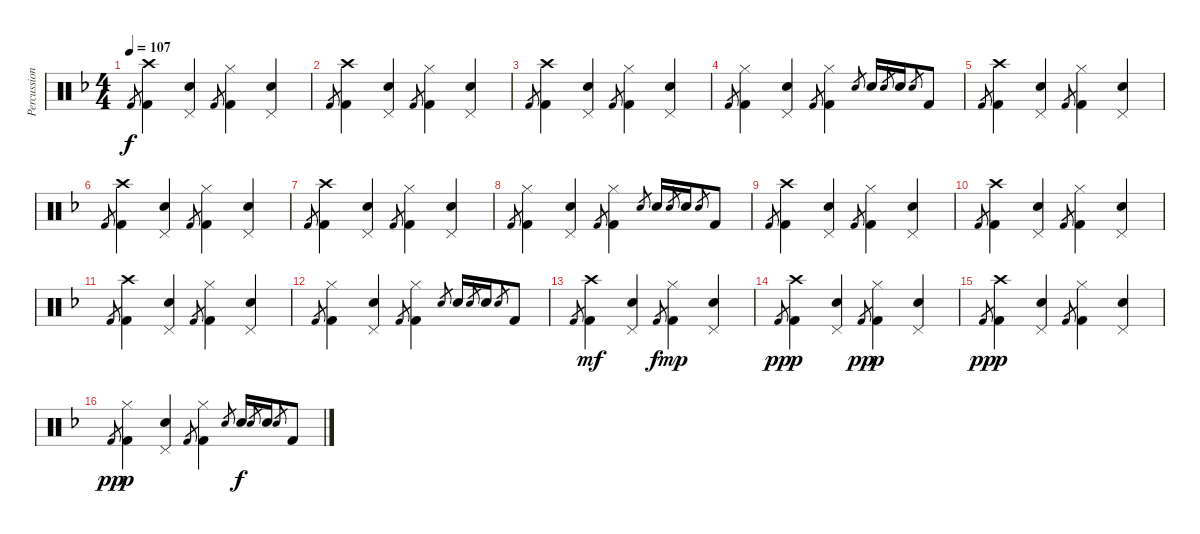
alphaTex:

\track ("Percussion" "Percussion") {instrument percussion}
\staff {score}
\articulation defaults
\ts (4 4)
\tempo 107
\clef neutral
\ks f "Kick (hit) 2".8{gr dy f}
("Kick (hit) 2" "Crash high (hit)").4 ("Snare (hit) 2" "Pedal Hi-Hat (hit)").4 "Kick (hit) 2".8{gr} ("Kick (hit) 2" "Hi-Hat (closed)").4 ("Snare (hit) 2" "Pedal Hi-Hat (hit)").4 |
"Kick (hit) 2".8{gr} ("Kick (hit) 2" "Crash high (hit)").4 ("Snare (hit) 2" "Pedal Hi-Hat (hit)").4 "Kick (hit) 2".8{gr} ("Kick (hit) 2" "Hi-Hat (closed)").4 ("Snare (hit) 2" "Pedal Hi-Hat (hit)").4 |
"Kick (hit) 2".8{gr} ("Kick (hit) 2" "Crash high (hit)").4 ("Snare (hit) 2" "Pedal Hi-Hat (hit)").4 "Kick (hit) 2".8{gr} ("Kick (hit) 2" "Hi-Hat (closed)").4 ("Snare (hit) 2" "Pedal Hi-Hat (hit)").4 |
"Kick (hit) 2".8{gr} ("Kick (hit) 2" "Hi-Hat (closed)").4 ("Snare (hit) 2" "Pedal Hi-Hat (hit)").4 "Kick (hit) 2".8{gr} ("Kick (hit) 2" "Hi-Hat (closed)").4 "Snare (hit) 2".8{gr} "Snare (hit) 2".16 "Snare (hit) 2".8{gr} "Snare (hit) 2".16 "Snare (hit) 2".8{gr} "Kick (hit) 2".8 |
"Kick (hit) 2".8{gr} ("Kick (hit) 2" "Crash high (hit)").4 ("Snare (hit) 2" "Pedal Hi-Hat (hit)").4 "Kick (hit) 2".8{gr} ("Kick (hit) 2" "Hi-Hat (closed)").4 ("Snare (hit) 2" "Pedal Hi-Hat (hit)").4 |
"Kick (hit) 2".8{gr} ("Kick (hit) 2" "Crash high (hit)").4 ("Snare (hit) 2" "Pedal Hi-Hat (hit)").4 "Kick (hit) 2".8{gr} ("Kick (hit) 2" "Hi-Hat (closed)").4 ("Snare (hit) 2" "Pedal Hi-Hat (hit)").4 |
"Kick (hit) 2".8{gr} ("Kick (hit) 2" "Crash high (hit)").4 ("Snare (hit) 2" "Pedal Hi-Hat (hit)").4 "Kick (hit) 2".8{gr} ("Kick (hit) 2" "Hi-Hat (closed)").4 ("Snare (hit) 2" "Pedal Hi-Hat (hit)").4 |
"Kick (hit) 2".8{gr} ("Kick (hit) 2" "Hi-Hat (closed)").4 ("Snare (hit) 2" "Pedal Hi-Hat (hit)").4 "Kick (hit) 2".8{gr} ("Kick (hit) 2" "Hi-Hat (closed)").4 "Snare (hit) 2".8{gr} "Snare (hit) 2".16 "Snare (hit) 2".8{gr} "Snare (hit) 2".16 "Snare (hit) 2".8{gr} "Kick (hit) 2".8 |
"Kick (hit) 2".8{gr} ("Kick (hit) 2" "Crash high (hit)").4 ("Snare (hit) 2" "Pedal Hi-Hat (hit)").4 "Kick (hit) 2".8{gr} ("Kick (hit) 2" "Hi-Hat (closed)").4 ("Snare (hit) 2" "Pedal Hi-Hat (hit)").4 |
"Kick (hit) 2".8{gr} ("Kick (hit) 2" "Crash high (hit)").4 ("Snare (hit) 2" "Pedal Hi-Hat (hit)").4 "Kick (hit) 2".8{gr} ("Kick (hit) 2" "Hi-Hat (closed)").4 ("Snare (hit) 2" "Pedal Hi-Hat (hit)").4 |
"Kick (hit) 2".8{gr} ("Kick (hit) 2" "Crash high (hit)").4 ("Snare (hit) 2" "Pedal Hi-Hat (hit)").4 "Kick (hit) 2".8{gr} ("Kick (hit) 2" "Hi-Hat (closed)").4 ("Snare (hit) 2" "Pedal Hi-Hat (hit)").4 |
"Kick (hit) 2".8{gr} ("Kick (hit) 2" "Hi-Hat (closed)").4 ("Snare (hit) 2" "Pedal Hi-Hat (hit)").4 "Kick (hit) 2".8{gr} ("Kick (hit) 2" "Hi-Hat (closed)").4 "Snare (hit) 2".8{gr} "Snare (hit) 2".16 "Snare (hit) 2".8{gr} "Snare (hit) 2".16 "Snare (hit) 2".8{gr} "Kick (hit) 2".8 |
"Kick (hit) 2".8{gr} ("Kick (hit) 2" "Crash high (hit)").4{dy mf} ("Snare (hit) 2" "Pedal Hi-Hat (hit)").4 "Kick (hit) 2".8{gr dy f} ("Kick (hit) 2" "Hi-Hat (closed)").4{dy mp} ("Snare (hit) 2" "Pedal Hi-Hat (hit)").4 |
"Kick (hit) 2".8{gr dy pp} ("Kick (hit) 2" "Crash high (hit)").4{dy p} ("Snare (hit) 2" "Pedal Hi-Hat (hit)").4 "Kick (hit) 2".8{gr dy pp} ("Kick (hit) 2" "Hi-Hat (closed)").4{dy p} ("Snare (hit) 2" "Pedal Hi-Hat (hit)").4 |
"Kick (hit) 2".8{gr dy pp} ("Kick (hit) 2" "Crash high (hit)").4{dy p} ("Snare (hit) 2" "Pedal Hi-Hat (hit)").4 "Kick (hit) 2".8{gr} ("Kick (hit) 2" "Hi-Hat (closed)").4 ("Snare (hit) 2" "Pedal Hi-Hat (hit)").4 |
"Kick (hit) 2".8{gr dy pp} ("Kick (hit) 2" "Hi-Hat (closed)").4{dy p} ("Snare (hit) 2" "Pedal Hi-Hat (hit)").4 "Kick (hit) 2".8{gr} ("Kick (hit) 2" "Hi-Hat (closed)").4 "Snare (hit) 2".8{gr} "Snare (hit) 2".16{dy f} "Snare (hit) 2".8{gr} "Snare (hit) 2".16 "Snare (hit) 2".8{gr} "Kick (hit) 2".8
